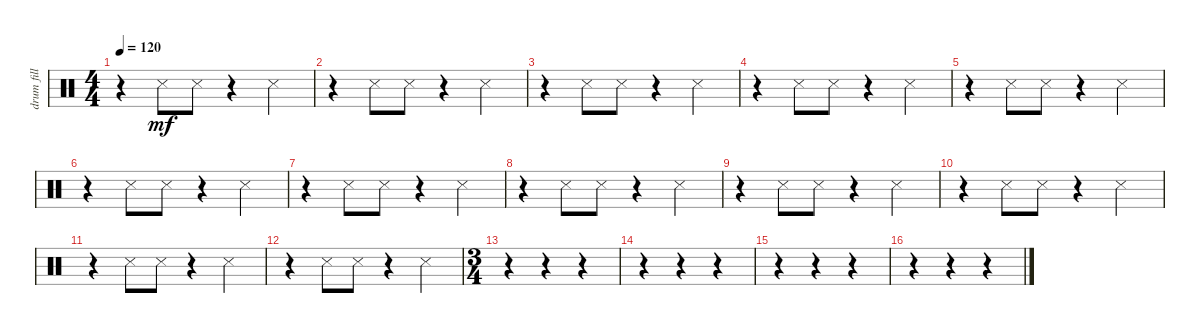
\track ("drum fill" "drum fill") {instrument percussion}
\staff {score}
\articulation defaults
\ts (4 4)
\tempo 120
\clef neutral
\ks c
r.4{dy mf} "Snare (side stick) 3".8 "Snare (side stick) 3".8 r.4 "Snare (side stick) 3".4 |
r.4 "Snare (side stick) 3".8 "Snare (side stick) 3".8 r.4 "Snare (side stick) 3".4 |
r.4 "Snare (side stick) 3".8 "Snare (side stick) 3".8 r.4 "Snare (side stick) 3".4 |
r.4 "Snare (side stick) 3".8 "Snare (side stick) 3".8 r.4 "Snare (side stick) 3".4 |
r.4 "Snare (side stick) 3".8 "Snare (side stick) 3".8 r.4 "Snare (side stick) 3".4 |
r.4 "Snare (side stick) 3".8 "Snare (side stick) 3".8 r.4 "Snare (side stick) 3".4 |
r.4 "Snare (side stick) 3".8 "Snare (side stick) 3".8 r.4 "Snare (side stick) 3".4 |
r.4 "Snare (side stick) 3".8 "Snare (side stick) 3".8 r.4 "Snare (side stick) 3".4 |
r.4 "Snare (side stick) 3".8 "Snare (side stick) 3".8 r.4 "Snare (side stick) 3".4 |
r.4 "Snare (side stick) 3".8 "Snare (side stick) 3".8 r.4 "Snare (side stick) 3".4 |
r.4 "Snare (side stick) 3".8 "Snare (side stick) 3".8 r.4 "Snare (side stick) 3".4 |
r.4 "Snare (side stick) 3".8 "Snare (side stick) 3".8 r.4 "Snare (side stick) 3".4 |
\ts (3 4)
r.4 r.4 r.4 |
r.4 r.4 r.4 |
r.4 r.4 r.4 |
r.4 r.4 r.4
